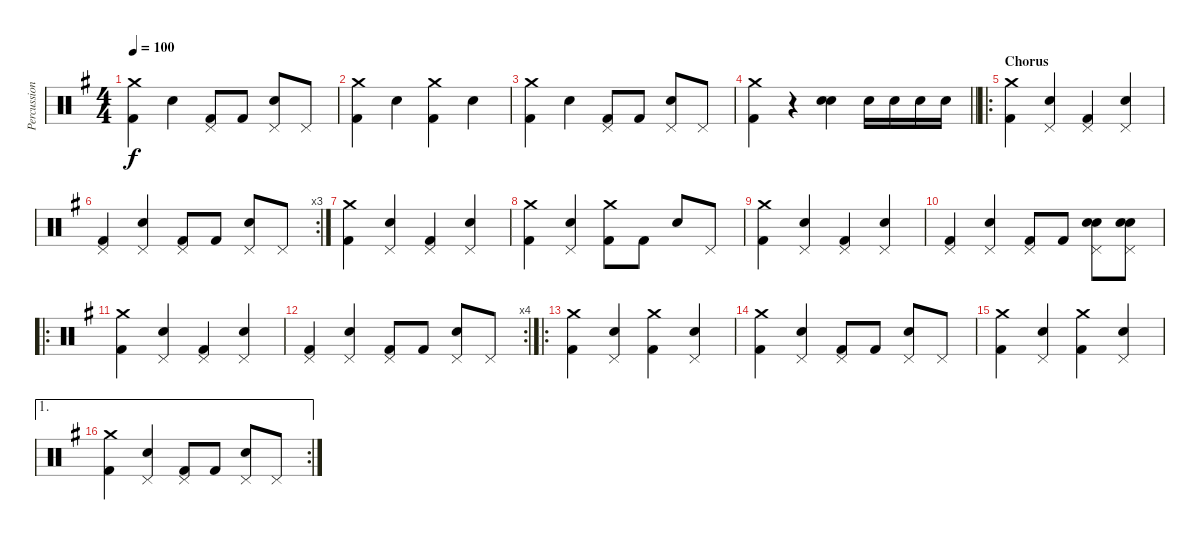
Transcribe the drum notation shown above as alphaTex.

\track ("Percussion" "Percussion") {instrument percussion}
\staff {score}
\articulation defaults
\ts (4 4)
\tempo 100
\clef neutral
\ks g
("Kick (hit) 2" "Crash medium (hit)").4{dy f} "Snare (hit) 2".4 ("Kick (hit) 2" "Pedal Hi-Hat (hit)").8 "Kick (hit) 2".8 ("Snare (hit) 2" "Pedal Hi-Hat (hit)").8 "Pedal Hi-Hat (hit)".8 |
("Kick (hit) 2" "Crash medium (hit)").4 "Snare (hit) 2".4 ("Kick (hit) 2" "Crash medium (hit)").4 "Snare (hit) 2".4 |
("Kick (hit) 2" "Crash medium (hit)").4 "Snare (hit) 2".4 ("Kick (hit) 2" "Pedal Hi-Hat (hit)").8 "Kick (hit) 2".8 ("Snare (hit) 2" "Pedal Hi-Hat (hit)").8 "Pedal Hi-Hat (hit)".8 |
\barLineRight lightlight
("Kick (hit) 2" "Crash medium (hit)").4 r.4 ("Snare (hit) 2" "Electric Snare (hit)").4 "Snare (hit) 2".16 "Snare (hit) 2".16 "Snare (hit) 2".16 "Snare (hit) 2".16 |
\ro
\section ("" "Chorus")
("Kick (hit) 2" "Crash medium (hit)").4 ("Snare (hit) 2" "Pedal Hi-Hat (hit)").4 ("Kick (hit) 2" "Pedal Hi-Hat (hit)").4 ("Snare (hit) 2" "Pedal Hi-Hat (hit)").4 |
\rc 3
("Kick (hit) 2" "Pedal Hi-Hat (hit)").4 ("Snare (hit) 2" "Pedal Hi-Hat (hit)").4 ("Kick (hit) 2" "Pedal Hi-Hat (hit)").8 "Kick (hit) 2".8 ("Snare (hit) 2" "Pedal Hi-Hat (hit)").8 "Pedal Hi-Hat (hit)".8 |
("Kick (hit) 2" "Crash medium (hit)").4 ("Snare (hit) 2" "Pedal Hi-Hat (hit)").4 ("Kick (hit) 2" "Pedal Hi-Hat (hit)").4 ("Snare (hit) 2" "Pedal Hi-Hat (hit)").4 |
("Kick (hit) 2" "Crash medium (hit)").4 ("Snare (hit) 2" "Pedal Hi-Hat (hit)").4 ("Kick (hit) 2" "Crash medium (hit)").8 "Kick (hit) 2".8 "Snare (hit) 2".8 "Pedal Hi-Hat (hit)".8 |
("Kick (hit) 2" "Crash medium (hit)").4 ("Snare (hit) 2" "Pedal Hi-Hat (hit)").4 ("Kick (hit) 2" "Pedal Hi-Hat (hit)").4 ("Snare (hit) 2" "Pedal Hi-Hat (hit)").4 |
("Kick (hit) 2" "Pedal Hi-Hat (hit)").4 ("Snare (hit) 2" "Pedal Hi-Hat (hit)").4 ("Kick (hit) 2" "Pedal Hi-Hat (hit)").8 "Kick (hit) 2".8 ("Snare (hit) 2" "Electric Snare (hit)" "Pedal Hi-Hat (hit)").8 ("Snare (hit) 2" "Electric Snare (hit)" "Pedal Hi-Hat (hit)").8 |
\ro
("Kick (hit) 2" "Crash medium (hit)").4 ("Snare (hit) 2" "Pedal Hi-Hat (hit)").4 ("Kick (hit) 2" "Pedal Hi-Hat (hit)").4 ("Snare (hit) 2" "Pedal Hi-Hat (hit)").4 |
\rc 4
("Kick (hit) 2" "Pedal Hi-Hat (hit)").4 ("Snare (hit) 2" "Pedal Hi-Hat (hit)").4 ("Kick (hit) 2" "Pedal Hi-Hat (hit)").8 "Kick (hit) 2".8 ("Snare (hit) 2" "Pedal Hi-Hat (hit)").8 "Pedal Hi-Hat (hit)".8 |
\ro
("Kick (hit) 2" "Crash medium (hit)").4 ("Snare (hit) 2" "Pedal Hi-Hat (hit)").4 ("Kick (hit) 2" "Crash medium (hit)").4 ("Snare (hit) 2" "Pedal Hi-Hat (hit)").4 |
("Kick (hit) 2" "Crash medium (hit)").4 ("Snare (hit) 2" "Pedal Hi-Hat (hit)").4 ("Kick (hit) 2" "Pedal Hi-Hat (hit)").8 "Kick (hit) 2".8 ("Snare (hit) 2" "Pedal Hi-Hat (hit)").8 "Pedal Hi-Hat (hit)".8 |
("Kick (hit) 2" "Crash medium (hit)").4 ("Snare (hit) 2" "Pedal Hi-Hat (hit)").4 ("Kick (hit) 2" "Crash medium (hit)").4 ("Snare (hit) 2" "Pedal Hi-Hat (hit)").4 |
\ae 1
\rc 2
("Kick (hit) 2" "Crash medium (hit)").4 ("Snare (hit) 2" "Pedal Hi-Hat (hit)").4 ("Kick (hit) 2" "Pedal Hi-Hat (hit)").8 "Kick (hit) 2".8 ("Snare (hit) 2" "Pedal Hi-Hat (hit)").8 "Pedal Hi-Hat (hit)".8
